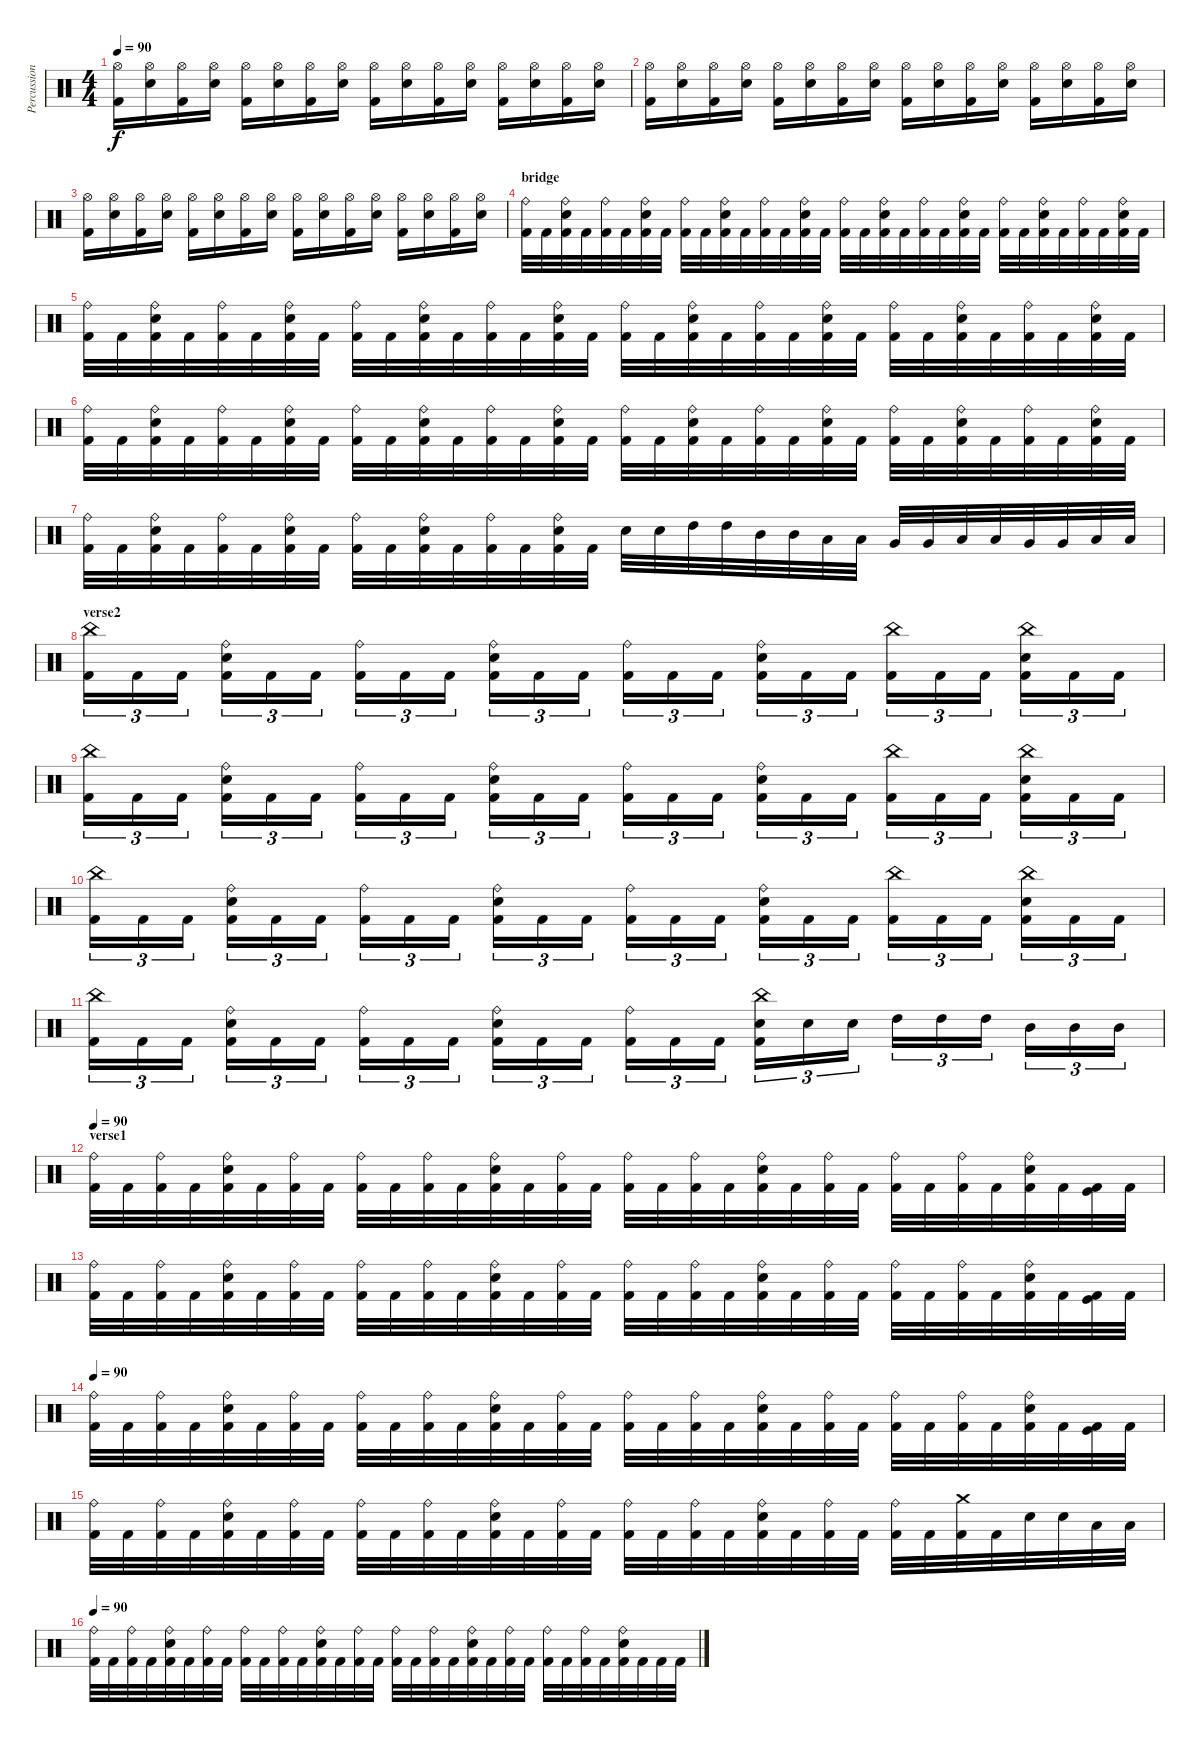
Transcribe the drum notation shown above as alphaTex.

\track ("Percussions" "Percussion") {instrument percussion}
\staff {score}
\articulation defaults
\ts (4 4)
\tempo 90
\clef neutral
\ks c
("Hi-Hat (open)" "Kick (hit) 2").16{dy f} ("Hi-Hat (open)" "Electric Snare (hit)").16 ("Hi-Hat (open)" "Kick (hit) 2").16 ("Hi-Hat (open)" "Electric Snare (hit)").16 ("Hi-Hat (open)" "Kick (hit) 2").16 ("Hi-Hat (open)" "Electric Snare (hit)").16 ("Hi-Hat (open)" "Kick (hit) 2").16 ("Hi-Hat (open)" "Electric Snare (hit)").16 ("Hi-Hat (open)" "Kick (hit) 2").16 ("Hi-Hat (open)" "Electric Snare (hit)").16 ("Hi-Hat (open)" "Kick (hit) 2").16 ("Hi-Hat (open)" "Electric Snare (hit)").16 ("Hi-Hat (open)" "Kick (hit) 2").16 ("Hi-Hat (open)" "Electric Snare (hit)").16 ("Hi-Hat (open)" "Kick (hit) 2").16 ("Hi-Hat (open)" "Electric Snare (hit)").16 |
("Hi-Hat (open)" "Kick (hit) 2").16 ("Hi-Hat (open)" "Electric Snare (hit)").16 ("Hi-Hat (open)" "Kick (hit) 2").16 ("Hi-Hat (open)" "Electric Snare (hit)").16 ("Hi-Hat (open)" "Kick (hit) 2").16 ("Hi-Hat (open)" "Electric Snare (hit)").16 ("Hi-Hat (open)" "Kick (hit) 2").16 ("Hi-Hat (open)" "Electric Snare (hit)").16 ("Hi-Hat (open)" "Kick (hit) 2").16 ("Hi-Hat (open)" "Electric Snare (hit)").16 ("Hi-Hat (open)" "Kick (hit) 2").16 ("Hi-Hat (open)" "Electric Snare (hit)").16 ("Hi-Hat (open)" "Kick (hit) 2").16 ("Hi-Hat (open)" "Electric Snare (hit)").16 ("Hi-Hat (open)" "Kick (hit) 2").16 ("Hi-Hat (open)" "Electric Snare (hit)").16 |
("Hi-Hat (open)" "Kick (hit) 2").16 ("Hi-Hat (open)" "Electric Snare (hit)").16 ("Hi-Hat (open)" "Kick (hit) 2").16 ("Hi-Hat (open)" "Electric Snare (hit)").16 ("Hi-Hat (open)" "Kick (hit) 2").16 ("Hi-Hat (open)" "Electric Snare (hit)").16 ("Hi-Hat (open)" "Kick (hit) 2").16 ("Hi-Hat (open)" "Electric Snare (hit)").16 ("Hi-Hat (open)" "Kick (hit) 2").16 ("Hi-Hat (open)" "Electric Snare (hit)").16 ("Hi-Hat (open)" "Kick (hit) 2").16 ("Hi-Hat (open)" "Electric Snare (hit)").16 ("Hi-Hat (open)" "Kick (hit) 2").16 ("Hi-Hat (open)" "Electric Snare (hit)").16 ("Hi-Hat (open)" "Kick (hit) 2").16 ("Hi-Hat (open)" "Electric Snare (hit)").16 |
\section ("" "bridge")
("Ride (bell)" "Kick (hit) 2").32 "Kick (hit) 2".32 ("Ride (bell)" "Electric Snare (hit)" "Kick (hit) 2").32 "Kick (hit) 2".32 ("Ride (bell)" "Kick (hit) 2").32 "Kick (hit) 2".32 ("Ride (bell)" "Electric Snare (hit)" "Kick (hit) 2").32 "Kick (hit) 2".32 ("Ride (bell)" "Kick (hit) 2").32 "Kick (hit) 2".32 ("Ride (bell)" "Electric Snare (hit)" "Kick (hit) 2").32 "Kick (hit) 2".32 ("Ride (bell)" "Kick (hit) 2").32 "Kick (hit) 2".32 ("Ride (bell)" "Electric Snare (hit)" "Kick (hit) 2").32 "Kick (hit) 2".32 ("Ride (bell)" "Kick (hit) 2").32 "Kick (hit) 2".32 ("Ride (bell)" "Electric Snare (hit)" "Kick (hit) 2").32 "Kick (hit) 2".32 ("Ride (bell)" "Kick (hit) 2").32 "Kick (hit) 2".32 ("Ride (bell)" "Electric Snare (hit)" "Kick (hit) 2").32 "Kick (hit) 2".32 ("Ride (bell)" "Kick (hit) 2").32 "Kick (hit) 2".32 ("Ride (bell)" "Electric Snare (hit)" "Kick (hit) 2").32 "Kick (hit) 2".32 ("Ride (bell)" "Kick (hit) 2").32 "Kick (hit) 2".32 ("Ride (bell)" "Electric Snare (hit)" "Kick (hit) 2").32 "Kick (hit) 2".32 |
("Ride (bell)" "Kick (hit) 2").32 "Kick (hit) 2".32 ("Ride (bell)" "Electric Snare (hit)" "Kick (hit) 2").32 "Kick (hit) 2".32 ("Ride (bell)" "Kick (hit) 2").32 "Kick (hit) 2".32 ("Ride (bell)" "Electric Snare (hit)" "Kick (hit) 2").32 "Kick (hit) 2".32 ("Ride (bell)" "Kick (hit) 2").32 "Kick (hit) 2".32 ("Ride (bell)" "Electric Snare (hit)" "Kick (hit) 2").32 "Kick (hit) 2".32 ("Ride (bell)" "Kick (hit) 2").32 "Kick (hit) 2".32 ("Ride (bell)" "Electric Snare (hit)" "Kick (hit) 2").32 "Kick (hit) 2".32 ("Ride (bell)" "Kick (hit) 2").32 "Kick (hit) 2".32 ("Ride (bell)" "Electric Snare (hit)" "Kick (hit) 2").32 "Kick (hit) 2".32 ("Ride (bell)" "Kick (hit) 2").32 "Kick (hit) 2".32 ("Ride (bell)" "Electric Snare (hit)" "Kick (hit) 2").32 "Kick (hit) 2".32 ("Ride (bell)" "Kick (hit) 2").32 "Kick (hit) 2".32 ("Ride (bell)" "Electric Snare (hit)" "Kick (hit) 2").32 "Kick (hit) 2".32 ("Ride (bell)" "Kick (hit) 2").32 "Kick (hit) 2".32 ("Ride (bell)" "Electric Snare (hit)" "Kick (hit) 2").32 "Kick (hit) 2".32 |
("Ride (bell)" "Kick (hit) 2").32 "Kick (hit) 2".32 ("Ride (bell)" "Electric Snare (hit)" "Kick (hit) 2").32 "Kick (hit) 2".32 ("Ride (bell)" "Kick (hit) 2").32 "Kick (hit) 2".32 ("Ride (bell)" "Electric Snare (hit)" "Kick (hit) 2").32 "Kick (hit) 2".32 ("Ride (bell)" "Kick (hit) 2").32 "Kick (hit) 2".32 ("Ride (bell)" "Electric Snare (hit)" "Kick (hit) 2").32 "Kick (hit) 2".32 ("Ride (bell)" "Kick (hit) 2").32 "Kick (hit) 2".32 ("Ride (bell)" "Electric Snare (hit)" "Kick (hit) 2").32 "Kick (hit) 2".32 ("Ride (bell)" "Kick (hit) 2").32 "Kick (hit) 2".32 ("Ride (bell)" "Electric Snare (hit)" "Kick (hit) 2").32 "Kick (hit) 2".32 ("Ride (bell)" "Kick (hit) 2").32 "Kick (hit) 2".32 ("Ride (bell)" "Electric Snare (hit)" "Kick (hit) 2").32 "Kick (hit) 2".32 ("Ride (bell)" "Kick (hit) 2").32 "Kick (hit) 2".32 ("Ride (bell)" "Electric Snare (hit)" "Kick (hit) 2").32 "Kick (hit) 2".32 ("Ride (bell)" "Kick (hit) 2").32 "Kick (hit) 2".32 ("Ride (bell)" "Electric Snare (hit)" "Kick (hit) 2").32 "Kick (hit) 2".32 |
("Ride (bell)" "Kick (hit) 2").32 "Kick (hit) 2".32 ("Ride (bell)" "Electric Snare (hit)" "Kick (hit) 2").32 "Kick (hit) 2".32 ("Ride (bell)" "Kick (hit) 2").32 "Kick (hit) 2".32 ("Ride (bell)" "Electric Snare (hit)" "Kick (hit) 2").32 "Kick (hit) 2".32 ("Ride (bell)" "Kick (hit) 2").32 "Kick (hit) 2".32 ("Ride (bell)" "Electric Snare (hit)" "Kick (hit) 2").32 "Kick (hit) 2".32 ("Ride (bell)" "Kick (hit) 2").32 "Kick (hit) 2".32 ("Ride (bell)" "Electric Snare (hit)" "Kick (hit) 2").32 "Kick (hit) 2".32 "Electric Snare (hit)".32 "Electric Snare (hit)".32 "High Tom (hit)".32 "High Tom (hit)".32 "Mid Tom (hit)".32 "Mid Tom (hit)".32 "Low Tom (hit)".32 "Low Tom (hit)".32 "Very Low Tom (hit)".32 "Very Low Tom (hit)".32 "Low Floor Tom (hit)".32 "Low Floor Tom (hit)".32 "Very Low Tom (hit)".32 "Very Low Tom (hit)".32 "Low Floor Tom (hit)".32 "Low Floor Tom (hit)".32 |
\section ("" "verse2")
("China (hit)" "Kick (hit) 2").16{tu (3 2)} "Kick (hit) 2".16{tu (3 2)} "Kick (hit) 2".16{tu (3 2)} ("Ride (bell)" "Electric Snare (hit)" "Kick (hit) 2").16{tu (3 2)} "Kick (hit) 2".16{tu (3 2)} "Kick (hit) 2".16{tu (3 2)} ("Ride (bell)" "Kick (hit) 2").16{tu (3 2)} "Kick (hit) 2".16{tu (3 2)} "Kick (hit) 2".16{tu (3 2)} ("Ride (bell)" "Electric Snare (hit)" "Kick (hit) 2").16{tu (3 2)} "Kick (hit) 2".16{tu (3 2)} "Kick (hit) 2".16{tu (3 2)} ("Ride (bell)" "Kick (hit) 2").16{tu (3 2)} "Kick (hit) 2".16{tu (3 2)} "Kick (hit) 2".16{tu (3 2)} ("Ride (bell)" "Electric Snare (hit)" "Kick (hit) 2").16{tu (3 2)} "Kick (hit) 2".16{tu (3 2)} "Kick (hit) 2".16{tu (3 2)} ("China (hit)" "Kick (hit) 2").16{tu (3 2)} "Kick (hit) 2".16{tu (3 2)} "Kick (hit) 2".16{tu (3 2)} ("China (hit)" "Electric Snare (hit)" "Kick (hit) 2").16{tu (3 2)} "Kick (hit) 2".16{tu (3 2)} "Kick (hit) 2".16{tu (3 2)} |
("China (hit)" "Kick (hit) 2").16{tu (3 2)} "Kick (hit) 2".16{tu (3 2)} "Kick (hit) 2".16{tu (3 2)} ("Ride (bell)" "Electric Snare (hit)" "Kick (hit) 2").16{tu (3 2)} "Kick (hit) 2".16{tu (3 2)} "Kick (hit) 2".16{tu (3 2)} ("Ride (bell)" "Kick (hit) 2").16{tu (3 2)} "Kick (hit) 2".16{tu (3 2)} "Kick (hit) 2".16{tu (3 2)} ("Ride (bell)" "Electric Snare (hit)" "Kick (hit) 2").16{tu (3 2)} "Kick (hit) 2".16{tu (3 2)} "Kick (hit) 2".16{tu (3 2)} ("Ride (bell)" "Kick (hit) 2").16{tu (3 2)} "Kick (hit) 2".16{tu (3 2)} "Kick (hit) 2".16{tu (3 2)} ("Ride (bell)" "Electric Snare (hit)" "Kick (hit) 2").16{tu (3 2)} "Kick (hit) 2".16{tu (3 2)} "Kick (hit) 2".16{tu (3 2)} ("China (hit)" "Kick (hit) 2").16{tu (3 2)} "Kick (hit) 2".16{tu (3 2)} "Kick (hit) 2".16{tu (3 2)} ("China (hit)" "Electric Snare (hit)" "Kick (hit) 2").16{tu (3 2)} "Kick (hit) 2".16{tu (3 2)} "Kick (hit) 2".16{tu (3 2)} |
("China (hit)" "Kick (hit) 2").16{tu (3 2)} "Kick (hit) 2".16{tu (3 2)} "Kick (hit) 2".16{tu (3 2)} ("Ride (bell)" "Electric Snare (hit)" "Kick (hit) 2").16{tu (3 2)} "Kick (hit) 2".16{tu (3 2)} "Kick (hit) 2".16{tu (3 2)} ("Ride (bell)" "Kick (hit) 2").16{tu (3 2)} "Kick (hit) 2".16{tu (3 2)} "Kick (hit) 2".16{tu (3 2)} ("Ride (bell)" "Electric Snare (hit)" "Kick (hit) 2").16{tu (3 2)} "Kick (hit) 2".16{tu (3 2)} "Kick (hit) 2".16{tu (3 2)} ("Ride (bell)" "Kick (hit) 2").16{tu (3 2)} "Kick (hit) 2".16{tu (3 2)} "Kick (hit) 2".16{tu (3 2)} ("Ride (bell)" "Electric Snare (hit)" "Kick (hit) 2").16{tu (3 2)} "Kick (hit) 2".16{tu (3 2)} "Kick (hit) 2".16{tu (3 2)} ("China (hit)" "Kick (hit) 2").16{tu (3 2)} "Kick (hit) 2".16{tu (3 2)} "Kick (hit) 2".16{tu (3 2)} ("China (hit)" "Electric Snare (hit)" "Kick (hit) 2").16{tu (3 2)} "Kick (hit) 2".16{tu (3 2)} "Kick (hit) 2".16{tu (3 2)} |
("China (hit)" "Kick (hit) 2").16{tu (3 2)} "Kick (hit) 2".16{tu (3 2)} "Kick (hit) 2".16{tu (3 2)} ("Ride (bell)" "Electric Snare (hit)" "Kick (hit) 2").16{tu (3 2)} "Kick (hit) 2".16{tu (3 2)} "Kick (hit) 2".16{tu (3 2)} ("Ride (bell)" "Kick (hit) 2").16{tu (3 2)} "Kick (hit) 2".16{tu (3 2)} "Kick (hit) 2".16{tu (3 2)} ("Ride (bell)" "Electric Snare (hit)" "Kick (hit) 2").16{tu (3 2)} "Kick (hit) 2".16{tu (3 2)} "Kick (hit) 2".16{tu (3 2)} ("Ride (bell)" "Kick (hit) 2").16{tu (3 2)} "Kick (hit) 2".16{tu (3 2)} "Kick (hit) 2".16{tu (3 2)} ("China (hit)" "Electric Snare (hit)" "Kick (hit) 2").16{tu (3 2)} "Electric Snare (hit)".16{tu (3 2)} "Electric Snare (hit)".16{tu (3 2)} "High Tom (hit)".16{tu (3 2)} "High Tom (hit)".16{tu (3 2)} "High Tom (hit)".16{tu (3 2)} "Mid Tom (hit)".16{tu (3 2)} "Mid Tom (hit)".16{tu (3 2)} "Mid Tom (hit)".16{tu (3 2)} |
\section ("" "verse1")
\tempo 90
("Ride (bell)" "Kick (hit) 2").32 "Kick (hit) 2".32 ("Ride (bell)" "Kick (hit) 2").32 "Kick (hit) 2".32 ("Ride (bell)" "Electric Snare (hit)" "Kick (hit) 2").32 "Kick (hit) 2".32 ("Ride (bell)" "Kick (hit) 2").32 "Kick (hit) 2".32 ("Ride (bell)" "Kick (hit) 2").32 "Kick (hit) 2".32 ("Ride (bell)" "Kick (hit) 2").32 "Kick (hit) 2".32 ("Ride (bell)" "Electric Snare (hit)" "Kick (hit) 2").32 "Kick (hit) 2".32 ("Ride (bell)" "Kick (hit) 2").32 "Kick (hit) 2".32 ("Ride (bell)" "Kick (hit) 2").32 "Kick (hit) 2".32 ("Ride (bell)" "Kick (hit) 2").32 "Kick (hit) 2".32 ("Ride (bell)" "Electric Snare (hit)" "Kick (hit) 2").32 "Kick (hit) 2".32 ("Ride (bell)" "Kick (hit) 2").32 "Kick (hit) 2".32 ("Ride (bell)" "Kick (hit) 2").32 "Kick (hit) 2".32 ("Ride (bell)" "Kick (hit) 2").32 "Kick (hit) 2".32 ("Ride (bell)" "Electric Snare (hit)" "Kick (hit) 2").32 "Kick (hit) 2".32 ("Kick (hit)" "Kick (hit) 2").32 "Kick (hit) 2".32 |
("Ride (bell)" "Kick (hit) 2").32 "Kick (hit) 2".32 ("Ride (bell)" "Kick (hit) 2").32 "Kick (hit) 2".32 ("Ride (bell)" "Electric Snare (hit)" "Kick (hit) 2").32 "Kick (hit) 2".32 ("Ride (bell)" "Kick (hit) 2").32 "Kick (hit) 2".32 ("Ride (bell)" "Kick (hit) 2").32 "Kick (hit) 2".32 ("Ride (bell)" "Kick (hit) 2").32 "Kick (hit) 2".32 ("Ride (bell)" "Electric Snare (hit)" "Kick (hit) 2").32 "Kick (hit) 2".32 ("Ride (bell)" "Kick (hit) 2").32 "Kick (hit) 2".32 ("Ride (bell)" "Kick (hit) 2").32 "Kick (hit) 2".32 ("Ride (bell)" "Kick (hit) 2").32 "Kick (hit) 2".32 ("Ride (bell)" "Electric Snare (hit)" "Kick (hit) 2").32 "Kick (hit) 2".32 ("Ride (bell)" "Kick (hit) 2").32 "Kick (hit) 2".32 ("Ride (bell)" "Kick (hit) 2").32 "Kick (hit) 2".32 ("Ride (bell)" "Kick (hit) 2").32 "Kick (hit) 2".32 ("Ride (bell)" "Electric Snare (hit)" "Kick (hit) 2").32 "Kick (hit) 2".32 ("Kick (hit)" "Kick (hit) 2").32 "Kick (hit) 2".32 |
\tempo 90
("Ride (bell)" "Kick (hit) 2").32 "Kick (hit) 2".32 ("Ride (bell)" "Kick (hit) 2").32 "Kick (hit) 2".32 ("Ride (bell)" "Electric Snare (hit)" "Kick (hit) 2").32 "Kick (hit) 2".32 ("Ride (bell)" "Kick (hit) 2").32 "Kick (hit) 2".32 ("Ride (bell)" "Kick (hit) 2").32 "Kick (hit) 2".32 ("Ride (bell)" "Kick (hit) 2").32 "Kick (hit) 2".32 ("Ride (bell)" "Electric Snare (hit)" "Kick (hit) 2").32 "Kick (hit) 2".32 ("Ride (bell)" "Kick (hit) 2").32 "Kick (hit) 2".32 ("Ride (bell)" "Kick (hit) 2").32 "Kick (hit) 2".32 ("Ride (bell)" "Kick (hit) 2").32 "Kick (hit) 2".32 ("Ride (bell)" "Electric Snare (hit)" "Kick (hit) 2").32 "Kick (hit) 2".32 ("Ride (bell)" "Kick (hit) 2").32 "Kick (hit) 2".32 ("Ride (bell)" "Kick (hit) 2").32 "Kick (hit) 2".32 ("Ride (bell)" "Kick (hit) 2").32 "Kick (hit) 2".32 ("Ride (bell)" "Electric Snare (hit)" "Kick (hit) 2").32 "Kick (hit) 2".32 ("Kick (hit)" "Kick (hit) 2").32 "Kick (hit) 2".32 |
("Ride (bell)" "Kick (hit) 2").32 "Kick (hit) 2".32 ("Ride (bell)" "Kick (hit) 2").32 "Kick (hit) 2".32 ("Ride (bell)" "Electric Snare (hit)" "Kick (hit) 2").32 "Kick (hit) 2".32 ("Ride (bell)" "Kick (hit) 2").32 "Kick (hit) 2".32 ("Ride (bell)" "Kick (hit) 2").32 "Kick (hit) 2".32 ("Ride (bell)" "Kick (hit) 2").32 "Kick (hit) 2".32 ("Ride (bell)" "Electric Snare (hit)" "Kick (hit) 2").32 "Kick (hit) 2".32 ("Ride (bell)" "Kick (hit) 2").32 "Kick (hit) 2".32 ("Ride (bell)" "Kick (hit) 2").32 "Kick (hit) 2".32 ("Ride (bell)" "Kick (hit) 2").32 "Kick (hit) 2".32 ("Ride (bell)" "Electric Snare (hit)" "Kick (hit) 2").32 "Kick (hit) 2".32 ("Ride (bell)" "Kick (hit) 2").32 "Kick (hit) 2".32 ("Ride (bell)" "Kick (hit) 2").32 "Kick (hit) 2".32 ("Crash medium (hit)" "Kick (hit) 2").32 "Kick (hit) 2".32 "Electric Snare (hit)".32 "Electric Snare (hit)".32 "Low Tom (hit)".32 "Low Tom (hit)".32 |
\tempo 90
("Ride (bell)" "Kick (hit) 2").32 "Kick (hit) 2".32 ("Ride (bell)" "Kick (hit) 2").32 "Kick (hit) 2".32 ("Ride (bell)" "Electric Snare (hit)" "Kick (hit) 2").32 "Kick (hit) 2".32 ("Ride (bell)" "Kick (hit) 2").32 "Kick (hit) 2".32 ("Ride (bell)" "Kick (hit) 2").32 "Kick (hit) 2".32 ("Ride (bell)" "Kick (hit) 2").32 "Kick (hit) 2".32 ("Ride (bell)" "Electric Snare (hit)" "Kick (hit) 2").32 "Kick (hit) 2".32 ("Ride (bell)" "Kick (hit) 2").32 "Kick (hit) 2".32 ("Ride (bell)" "Kick (hit) 2").32 "Kick (hit) 2".32 ("Ride (bell)" "Kick (hit) 2").32 "Kick (hit) 2".32 ("Ride (bell)" "Electric Snare (hit)" "Kick (hit) 2").32 "Kick (hit) 2".32 ("Ride (bell)" "Kick (hit) 2").32 "Kick (hit) 2".32 ("Ride (bell)" "Kick (hit) 2").32 "Kick (hit) 2".32 ("Ride (bell)" "Kick (hit) 2").32 "Kick (hit) 2".32 ("Ride (bell)" "Electric Snare (hit)" "Kick (hit) 2").32 "Kick (hit) 2".32 "Kick (hit) 2".32 "Kick (hit) 2".32
